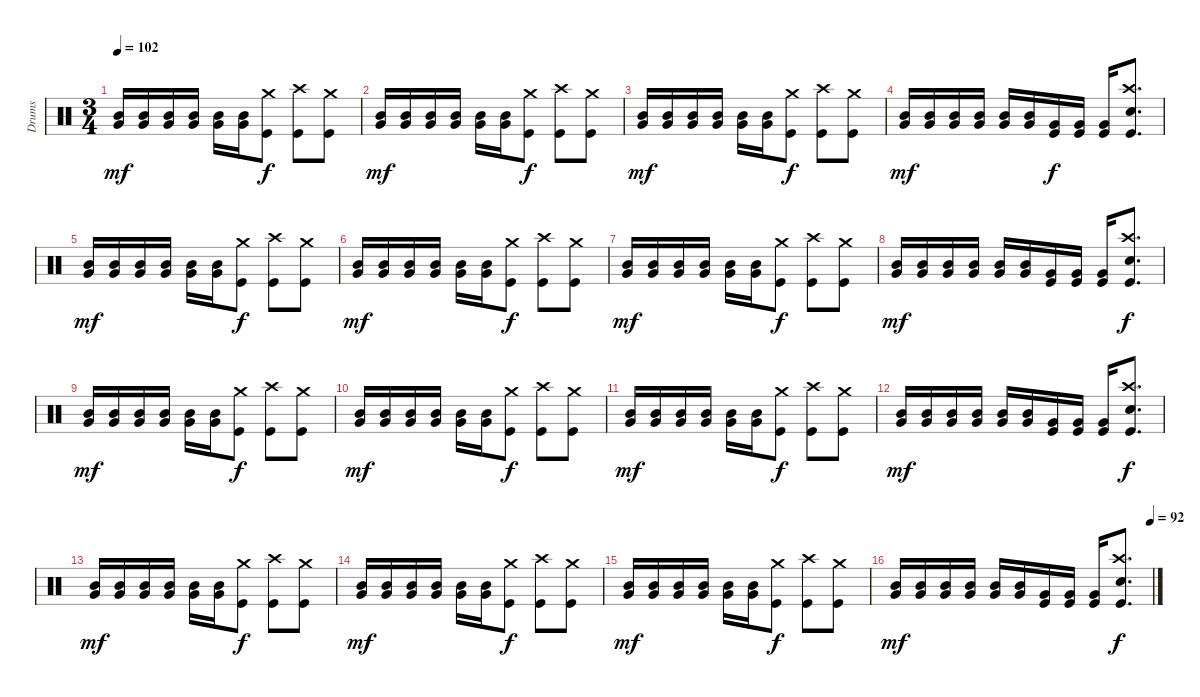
\track ("Drums" "Drums") {instrument percussion}
\staff {score}
\articulation defaults
\ts (3 4)
\beaming (8 2 2 2)
\tempo 102
\clef neutral
\ks c
("Mid Tom (hit)" "Very Low Tom (hit)").16{dy mf} ("Mid Tom (hit)" "Very Low Tom (hit)").16 ("Mid Tom (hit)" "Very Low Tom (hit)").16 ("Mid Tom (hit)" "Very Low Tom (hit)").16 ("Mid Tom (hit)" "Very Low Tom (hit)").16 ("Mid Tom (hit)" "Very Low Tom (hit)").16 ("Crash medium (hit)" "Kick (hit)").8{dy f} ("Crash high (hit)" "Kick (hit)").8 ("Crash medium (hit)" "Kick (hit)").8 |
("Mid Tom (hit)" "Very Low Tom (hit)").16{dy mf} ("Mid Tom (hit)" "Very Low Tom (hit)").16 ("Mid Tom (hit)" "Very Low Tom (hit)").16 ("Mid Tom (hit)" "Very Low Tom (hit)").16 ("Mid Tom (hit)" "Very Low Tom (hit)").16 ("Mid Tom (hit)" "Very Low Tom (hit)").16 ("Crash medium (hit)" "Kick (hit)").8{dy f} ("Crash high (hit)" "Kick (hit)").8 ("Crash medium (hit)" "Kick (hit)").8 |
("Mid Tom (hit)" "Very Low Tom (hit)").16{dy mf} ("Mid Tom (hit)" "Very Low Tom (hit)").16 ("Mid Tom (hit)" "Very Low Tom (hit)").16 ("Mid Tom (hit)" "Very Low Tom (hit)").16 ("Mid Tom (hit)" "Very Low Tom (hit)").16 ("Mid Tom (hit)" "Very Low Tom (hit)").16 ("Crash medium (hit)" "Kick (hit)").8{dy f} ("Crash high (hit)" "Kick (hit)").8 ("Crash medium (hit)" "Kick (hit)").8 |
("Mid Tom (hit)" "Very Low Tom (hit)").16{dy mf} ("Mid Tom (hit)" "Very Low Tom (hit)").16 ("Mid Tom (hit)" "Very Low Tom (hit)").16 ("Mid Tom (hit)" "Very Low Tom (hit)").16 ("Mid Tom (hit)" "Very Low Tom (hit)").16 ("Mid Tom (hit)" "Very Low Tom (hit)").16 ("Very Low Tom (hit)" "Kick (hit)").16{dy f} ("Very Low Tom (hit)" "Kick (hit)").16 ("Very Low Tom (hit)" "Kick (hit)").16 ("Crash high (hit)" "Snare (hit) 2" "Kick (hit)").8{d} |
("Mid Tom (hit)" "Very Low Tom (hit)").16{dy mf} ("Mid Tom (hit)" "Very Low Tom (hit)").16 ("Mid Tom (hit)" "Very Low Tom (hit)").16 ("Mid Tom (hit)" "Very Low Tom (hit)").16 ("Mid Tom (hit)" "Very Low Tom (hit)").16 ("Mid Tom (hit)" "Very Low Tom (hit)").16 ("Crash medium (hit)" "Kick (hit)").8{dy f} ("Crash high (hit)" "Kick (hit)").8 ("Crash medium (hit)" "Kick (hit)").8 |
("Mid Tom (hit)" "Very Low Tom (hit)").16{dy mf} ("Mid Tom (hit)" "Very Low Tom (hit)").16 ("Mid Tom (hit)" "Very Low Tom (hit)").16 ("Mid Tom (hit)" "Very Low Tom (hit)").16 ("Mid Tom (hit)" "Very Low Tom (hit)").16 ("Mid Tom (hit)" "Very Low Tom (hit)").16 ("Crash medium (hit)" "Kick (hit)").8{dy f} ("Crash high (hit)" "Kick (hit)").8 ("Crash medium (hit)" "Kick (hit)").8 |
("Mid Tom (hit)" "Very Low Tom (hit)").16{dy mf} ("Mid Tom (hit)" "Very Low Tom (hit)").16 ("Mid Tom (hit)" "Very Low Tom (hit)").16 ("Mid Tom (hit)" "Very Low Tom (hit)").16 ("Mid Tom (hit)" "Very Low Tom (hit)").16 ("Mid Tom (hit)" "Very Low Tom (hit)").16 ("Crash medium (hit)" "Kick (hit)").8{dy f} ("Crash high (hit)" "Kick (hit)").8 ("Crash medium (hit)" "Kick (hit)").8 |
("Mid Tom (hit)" "Very Low Tom (hit)").16{dy mf} ("Mid Tom (hit)" "Very Low Tom (hit)").16 ("Mid Tom (hit)" "Very Low Tom (hit)").16 ("Mid Tom (hit)" "Very Low Tom (hit)").16 ("Mid Tom (hit)" "Very Low Tom (hit)").16 ("Mid Tom (hit)" "Very Low Tom (hit)").16 ("Very Low Tom (hit)" "Kick (hit)").16 ("Very Low Tom (hit)" "Kick (hit)").16 ("Very Low Tom (hit)" "Kick (hit)").16 ("Crash high (hit)" "Snare (hit) 2" "Kick (hit)").8{d dy f} |
("Mid Tom (hit)" "Very Low Tom (hit)").16{dy mf} ("Mid Tom (hit)" "Very Low Tom (hit)").16 ("Mid Tom (hit)" "Very Low Tom (hit)").16 ("Mid Tom (hit)" "Very Low Tom (hit)").16 ("Mid Tom (hit)" "Very Low Tom (hit)").16 ("Mid Tom (hit)" "Very Low Tom (hit)").16 ("Crash medium (hit)" "Kick (hit)").8{dy f} ("Crash high (hit)" "Kick (hit)").8 ("Crash medium (hit)" "Kick (hit)").8 |
("Mid Tom (hit)" "Very Low Tom (hit)").16{dy mf} ("Mid Tom (hit)" "Very Low Tom (hit)").16 ("Mid Tom (hit)" "Very Low Tom (hit)").16 ("Mid Tom (hit)" "Very Low Tom (hit)").16 ("Mid Tom (hit)" "Very Low Tom (hit)").16 ("Mid Tom (hit)" "Very Low Tom (hit)").16 ("Crash medium (hit)" "Kick (hit)").8{dy f} ("Crash high (hit)" "Kick (hit)").8 ("Crash medium (hit)" "Kick (hit)").8 |
("Mid Tom (hit)" "Very Low Tom (hit)").16{dy mf} ("Mid Tom (hit)" "Very Low Tom (hit)").16 ("Mid Tom (hit)" "Very Low Tom (hit)").16 ("Mid Tom (hit)" "Very Low Tom (hit)").16 ("Mid Tom (hit)" "Very Low Tom (hit)").16 ("Mid Tom (hit)" "Very Low Tom (hit)").16 ("Crash medium (hit)" "Kick (hit)").8{dy f} ("Crash high (hit)" "Kick (hit)").8 ("Crash medium (hit)" "Kick (hit)").8 |
("Mid Tom (hit)" "Very Low Tom (hit)").16{dy mf} ("Mid Tom (hit)" "Very Low Tom (hit)").16 ("Mid Tom (hit)" "Very Low Tom (hit)").16 ("Mid Tom (hit)" "Very Low Tom (hit)").16 ("Mid Tom (hit)" "Very Low Tom (hit)").16 ("Mid Tom (hit)" "Very Low Tom (hit)").16 ("Very Low Tom (hit)" "Kick (hit)").16 ("Very Low Tom (hit)" "Kick (hit)").16 ("Very Low Tom (hit)" "Kick (hit)").16 ("Crash high (hit)" "Snare (hit) 2" "Kick (hit)").8{d dy f} |
("Mid Tom (hit)" "Very Low Tom (hit)").16{dy mf} ("Mid Tom (hit)" "Very Low Tom (hit)").16 ("Mid Tom (hit)" "Very Low Tom (hit)").16 ("Mid Tom (hit)" "Very Low Tom (hit)").16 ("Mid Tom (hit)" "Very Low Tom (hit)").16 ("Mid Tom (hit)" "Very Low Tom (hit)").16 ("Crash medium (hit)" "Kick (hit)").8{dy f} ("Crash high (hit)" "Kick (hit)").8 ("Crash medium (hit)" "Kick (hit)").8 |
("Mid Tom (hit)" "Very Low Tom (hit)").16{dy mf} ("Mid Tom (hit)" "Very Low Tom (hit)").16 ("Mid Tom (hit)" "Very Low Tom (hit)").16 ("Mid Tom (hit)" "Very Low Tom (hit)").16 ("Mid Tom (hit)" "Very Low Tom (hit)").16 ("Mid Tom (hit)" "Very Low Tom (hit)").16 ("Crash medium (hit)" "Kick (hit)").8{dy f} ("Crash high (hit)" "Kick (hit)").8 ("Crash medium (hit)" "Kick (hit)").8 |
("Mid Tom (hit)" "Very Low Tom (hit)").16{dy mf} ("Mid Tom (hit)" "Very Low Tom (hit)").16 ("Mid Tom (hit)" "Very Low Tom (hit)").16 ("Mid Tom (hit)" "Very Low Tom (hit)").16 ("Mid Tom (hit)" "Very Low Tom (hit)").16 ("Mid Tom (hit)" "Very Low Tom (hit)").16 ("Crash medium (hit)" "Kick (hit)").8{dy f} ("Crash high (hit)" "Kick (hit)").8 ("Crash medium (hit)" "Kick (hit)").8 |
\tempo (92 0.99375)
("Mid Tom (hit)" "Very Low Tom (hit)").16{dy mf} ("Mid Tom (hit)" "Very Low Tom (hit)").16 ("Mid Tom (hit)" "Very Low Tom (hit)").16 ("Mid Tom (hit)" "Very Low Tom (hit)").16 ("Mid Tom (hit)" "Very Low Tom (hit)").16 ("Mid Tom (hit)" "Very Low Tom (hit)").16 ("Very Low Tom (hit)" "Kick (hit)").16 ("Very Low Tom (hit)" "Kick (hit)").16 ("Very Low Tom (hit)" "Kick (hit)").16 ("Crash high (hit)" "Snare (hit) 2" "Kick (hit)").8{d dy f}
